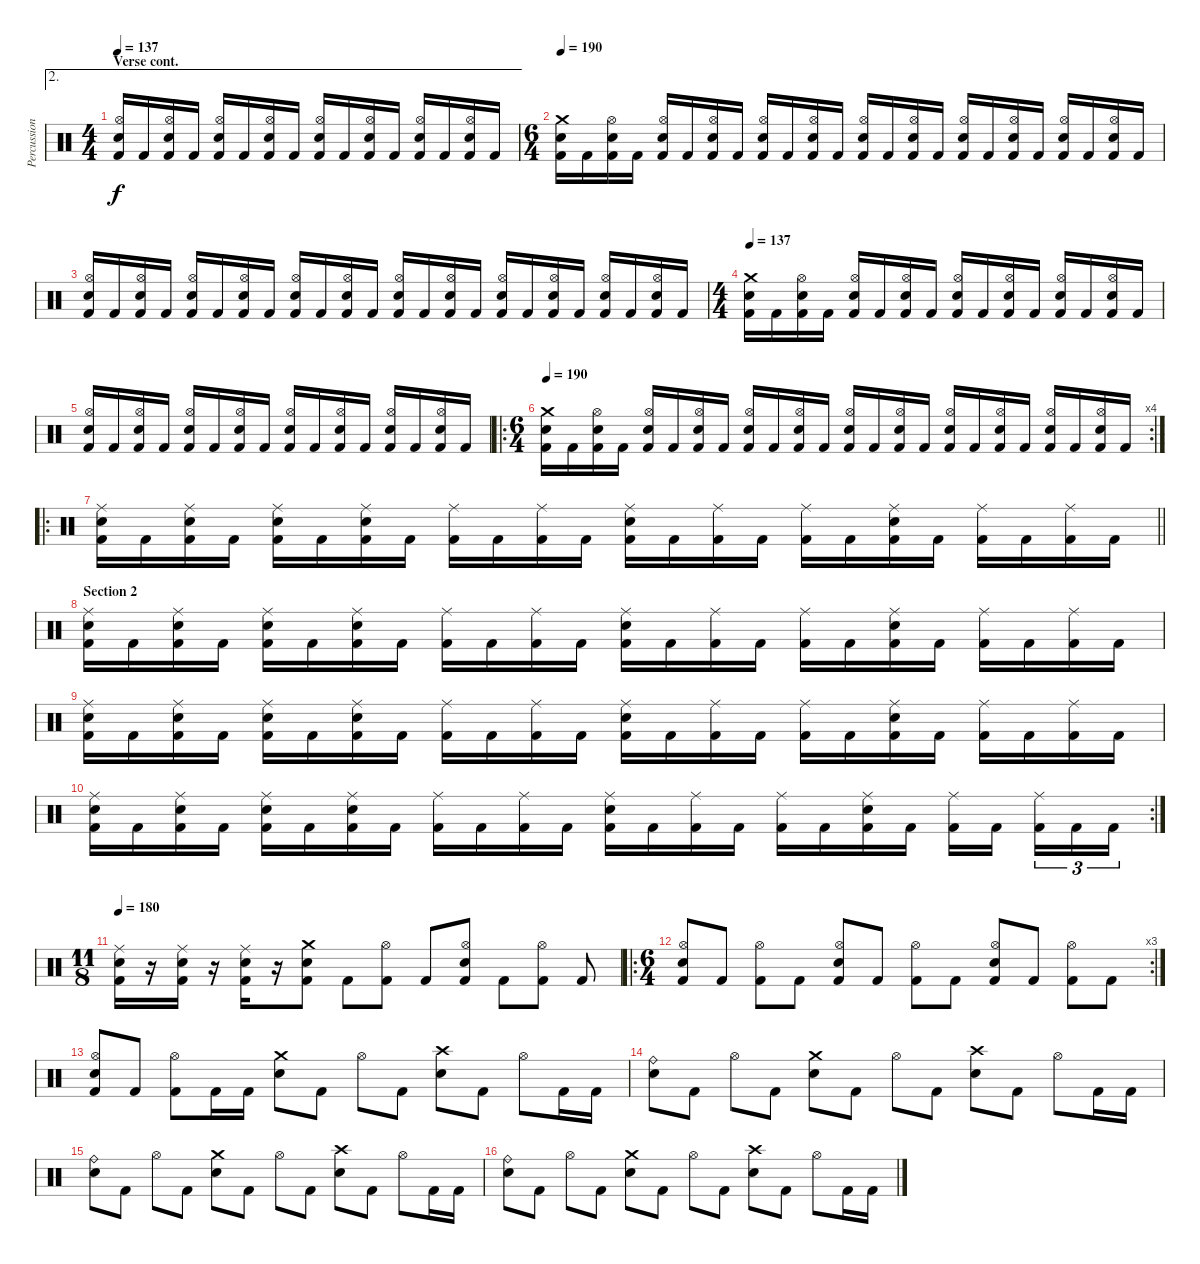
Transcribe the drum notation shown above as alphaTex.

\track ("Percussion" "Percussion") {instrument percussion}
\staff {score}
\articulation defaults
\ae 2
\ts (4 4)
\section ("" "Verse cont.")
\tempo 137
\clef neutral
\ks c
("Kick (hit) 2" "Hi-Hat (open)" "Snare (hit) 2").16{dy f} "Kick (hit) 2".16 ("Kick (hit) 2" "Hi-Hat (open)" "Snare (hit) 2").16 "Kick (hit) 2".16 ("Kick (hit) 2" "Hi-Hat (open)" "Snare (hit) 2").16 "Kick (hit) 2".16 ("Kick (hit) 2" "Hi-Hat (open)" "Snare (hit) 2").16 "Kick (hit) 2".16 ("Kick (hit) 2" "Hi-Hat (open)" "Snare (hit) 2").16 "Kick (hit) 2".16 ("Kick (hit) 2" "Hi-Hat (open)" "Snare (hit) 2").16 "Kick (hit) 2".16 ("Kick (hit) 2" "Hi-Hat (open)" "Snare (hit) 2").16 "Kick (hit) 2".16 ("Kick (hit) 2" "Hi-Hat (open)" "Snare (hit) 2").16 "Kick (hit) 2".16 |
\ts (6 4)
\tempo 190
("Kick (hit) 2" "Crash medium (hit)" "Snare (hit) 2").16 "Kick (hit) 2".16 ("Kick (hit) 2" "Hi-Hat (open)" "Snare (hit) 2").16 "Kick (hit) 2".16 ("Kick (hit) 2" "Hi-Hat (open)" "Snare (hit) 2").16 "Kick (hit) 2".16 ("Kick (hit) 2" "Hi-Hat (open)" "Snare (hit) 2").16 "Kick (hit) 2".16 ("Kick (hit) 2" "Hi-Hat (open)" "Snare (hit) 2").16 "Kick (hit) 2".16 ("Kick (hit) 2" "Hi-Hat (open)" "Snare (hit) 2").16 "Kick (hit) 2".16 ("Kick (hit) 2" "Hi-Hat (open)" "Snare (hit) 2").16 "Kick (hit) 2".16 ("Kick (hit) 2" "Hi-Hat (open)" "Snare (hit) 2").16 "Kick (hit) 2".16 ("Kick (hit) 2" "Hi-Hat (open)" "Snare (hit) 2").16 "Kick (hit) 2".16 ("Kick (hit) 2" "Hi-Hat (open)" "Snare (hit) 2").16 "Kick (hit) 2".16 ("Kick (hit) 2" "Hi-Hat (open)" "Snare (hit) 2").16 "Kick (hit) 2".16 ("Kick (hit) 2" "Hi-Hat (open)" "Snare (hit) 2").16 "Kick (hit) 2".16 |
("Kick (hit) 2" "Hi-Hat (open)" "Snare (hit) 2").16 "Kick (hit) 2".16 ("Kick (hit) 2" "Hi-Hat (open)" "Snare (hit) 2").16 "Kick (hit) 2".16 ("Kick (hit) 2" "Hi-Hat (open)" "Snare (hit) 2").16 "Kick (hit) 2".16 ("Kick (hit) 2" "Hi-Hat (open)" "Snare (hit) 2").16 "Kick (hit) 2".16 ("Kick (hit) 2" "Hi-Hat (open)" "Snare (hit) 2").16 "Kick (hit) 2".16 ("Kick (hit) 2" "Hi-Hat (open)" "Snare (hit) 2").16 "Kick (hit) 2".16 ("Kick (hit) 2" "Hi-Hat (open)" "Snare (hit) 2").16 "Kick (hit) 2".16 ("Kick (hit) 2" "Hi-Hat (open)" "Snare (hit) 2").16 "Kick (hit) 2".16 ("Kick (hit) 2" "Hi-Hat (open)" "Snare (hit) 2").16 "Kick (hit) 2".16 ("Kick (hit) 2" "Hi-Hat (open)" "Snare (hit) 2").16 "Kick (hit) 2".16 ("Kick (hit) 2" "Hi-Hat (open)" "Snare (hit) 2").16 "Kick (hit) 2".16 ("Kick (hit) 2" "Hi-Hat (open)" "Snare (hit) 2").16 "Kick (hit) 2".16 |
\ts (4 4)
\tempo 137
("Kick (hit) 2" "Crash medium (hit)" "Snare (hit) 2").16 "Kick (hit) 2".16 ("Kick (hit) 2" "Hi-Hat (open)" "Snare (hit) 2").16 "Kick (hit) 2".16 ("Kick (hit) 2" "Hi-Hat (open)" "Snare (hit) 2").16 "Kick (hit) 2".16 ("Kick (hit) 2" "Hi-Hat (open)" "Snare (hit) 2").16 "Kick (hit) 2".16 ("Kick (hit) 2" "Hi-Hat (open)" "Snare (hit) 2").16 "Kick (hit) 2".16 ("Kick (hit) 2" "Hi-Hat (open)" "Snare (hit) 2").16 "Kick (hit) 2".16 ("Kick (hit) 2" "Hi-Hat (open)" "Snare (hit) 2").16 "Kick (hit) 2".16 ("Kick (hit) 2" "Hi-Hat (open)" "Snare (hit) 2").16 "Kick (hit) 2".16 |
("Kick (hit) 2" "Hi-Hat (open)" "Snare (hit) 2").16 "Kick (hit) 2".16 ("Kick (hit) 2" "Hi-Hat (open)" "Snare (hit) 2").16 "Kick (hit) 2".16 ("Kick (hit) 2" "Hi-Hat (open)" "Snare (hit) 2").16 "Kick (hit) 2".16 ("Kick (hit) 2" "Hi-Hat (open)" "Snare (hit) 2").16 "Kick (hit) 2".16 ("Kick (hit) 2" "Hi-Hat (open)" "Snare (hit) 2").16 "Kick (hit) 2".16 ("Kick (hit) 2" "Hi-Hat (open)" "Snare (hit) 2").16 "Kick (hit) 2".16 ("Kick (hit) 2" "Hi-Hat (open)" "Snare (hit) 2").16 "Kick (hit) 2".16 ("Kick (hit) 2" "Hi-Hat (open)" "Snare (hit) 2").16 "Kick (hit) 2".16 |
\ro
\rc 4
\ts (6 4)
\tempo 190
("Kick (hit) 2" "Crash medium (hit)" "Snare (hit) 2").16 "Kick (hit) 2".16 ("Kick (hit) 2" "Hi-Hat (open)" "Snare (hit) 2").16 "Kick (hit) 2".16 ("Kick (hit) 2" "Hi-Hat (open)" "Snare (hit) 2").16 "Kick (hit) 2".16 ("Kick (hit) 2" "Hi-Hat (open)" "Snare (hit) 2").16 "Kick (hit) 2".16 ("Kick (hit) 2" "Hi-Hat (open)" "Snare (hit) 2").16 "Kick (hit) 2".16 ("Kick (hit) 2" "Hi-Hat (open)" "Snare (hit) 2").16 "Kick (hit) 2".16 ("Kick (hit) 2" "Hi-Hat (open)" "Snare (hit) 2").16 "Kick (hit) 2".16 ("Kick (hit) 2" "Hi-Hat (open)" "Snare (hit) 2").16 "Kick (hit) 2".16 ("Kick (hit) 2" "Hi-Hat (open)" "Snare (hit) 2").16 "Kick (hit) 2".16 ("Kick (hit) 2" "Hi-Hat (open)" "Snare (hit) 2").16 "Kick (hit) 2".16 ("Kick (hit) 2" "Hi-Hat (open)" "Snare (hit) 2").16 "Kick (hit) 2".16 ("Kick (hit) 2" "Hi-Hat (open)" "Snare (hit) 2").16 "Kick (hit) 2".16 |
\ro
\barLineRight lightlight
("Kick (hit) 2" "Ride (middle)" "Snare (hit) 2").16 "Kick (hit) 2".16 ("Kick (hit) 2" "Ride (middle)" "Snare (hit) 2").16 "Kick (hit) 2".16 ("Kick (hit) 2" "Ride (middle)" "Snare (hit) 2").16 "Kick (hit) 2".16 ("Kick (hit) 2" "Ride (middle)" "Snare (hit) 2").16 "Kick (hit) 2".16 ("Kick (hit) 2" "Ride (middle)").16 "Kick (hit) 2".16 ("Kick (hit) 2" "Ride (middle)").16 "Kick (hit) 2".16 ("Kick (hit) 2" "Ride (middle)" "Snare (hit) 2").16 "Kick (hit) 2".16 ("Kick (hit) 2" "Ride (middle)").16 "Kick (hit) 2".16 ("Kick (hit) 2" "Ride (middle)").16 "Kick (hit) 2".16 ("Kick (hit) 2" "Ride (middle)" "Snare (hit) 2").16 "Kick (hit) 2".16 ("Kick (hit) 2" "Ride (middle)").16 "Kick (hit) 2".16 ("Kick (hit) 2" "Ride (middle)").16 "Kick (hit) 2".16 |
\section ("" "Section 2")
("Kick (hit) 2" "Ride (middle)" "Snare (hit) 2").16 "Kick (hit) 2".16 ("Kick (hit) 2" "Ride (middle)" "Snare (hit) 2").16 "Kick (hit) 2".16 ("Kick (hit) 2" "Ride (middle)" "Snare (hit) 2").16 "Kick (hit) 2".16 ("Kick (hit) 2" "Ride (middle)" "Snare (hit) 2").16 "Kick (hit) 2".16 ("Kick (hit) 2" "Ride (middle)").16 "Kick (hit) 2".16 ("Kick (hit) 2" "Ride (middle)").16 "Kick (hit) 2".16 ("Kick (hit) 2" "Ride (middle)" "Snare (hit) 2").16 "Kick (hit) 2".16 ("Kick (hit) 2" "Ride (middle)").16 "Kick (hit) 2".16 ("Kick (hit) 2" "Ride (middle)").16 "Kick (hit) 2".16 ("Kick (hit) 2" "Ride (middle)" "Snare (hit) 2").16 "Kick (hit) 2".16 ("Kick (hit) 2" "Ride (middle)").16 "Kick (hit) 2".16 ("Kick (hit) 2" "Ride (middle)").16 "Kick (hit) 2".16 |
("Kick (hit) 2" "Ride (middle)" "Snare (hit) 2").16 "Kick (hit) 2".16 ("Kick (hit) 2" "Ride (middle)" "Snare (hit) 2").16 "Kick (hit) 2".16 ("Kick (hit) 2" "Ride (middle)" "Snare (hit) 2").16 "Kick (hit) 2".16 ("Kick (hit) 2" "Ride (middle)" "Snare (hit) 2").16 "Kick (hit) 2".16 ("Kick (hit) 2" "Ride (middle)").16 "Kick (hit) 2".16 ("Kick (hit) 2" "Ride (middle)").16 "Kick (hit) 2".16 ("Kick (hit) 2" "Ride (middle)" "Snare (hit) 2").16 "Kick (hit) 2".16 ("Kick (hit) 2" "Ride (middle)").16 "Kick (hit) 2".16 ("Kick (hit) 2" "Ride (middle)").16 "Kick (hit) 2".16 ("Kick (hit) 2" "Ride (middle)" "Snare (hit) 2").16 "Kick (hit) 2".16 ("Kick (hit) 2" "Ride (middle)").16 "Kick (hit) 2".16 ("Kick (hit) 2" "Ride (middle)").16 "Kick (hit) 2".16 |
\rc 2
("Kick (hit) 2" "Ride (middle)" "Snare (hit) 2").16 "Kick (hit) 2".16 ("Kick (hit) 2" "Ride (middle)" "Snare (hit) 2").16 "Kick (hit) 2".16 ("Kick (hit) 2" "Ride (middle)" "Snare (hit) 2").16 "Kick (hit) 2".16 ("Kick (hit) 2" "Ride (middle)" "Snare (hit) 2").16 "Kick (hit) 2".16 ("Kick (hit) 2" "Ride (middle)").16 "Kick (hit) 2".16 ("Kick (hit) 2" "Ride (middle)").16 "Kick (hit) 2".16 ("Kick (hit) 2" "Ride (middle)" "Snare (hit) 2").16 "Kick (hit) 2".16 ("Kick (hit) 2" "Ride (middle)").16 "Kick (hit) 2".16 ("Kick (hit) 2" "Ride (middle)").16 "Kick (hit) 2".16 ("Kick (hit) 2" "Ride (middle)" "Snare (hit) 2").16 "Kick (hit) 2".16 ("Kick (hit) 2" "Ride (middle)").16 "Kick (hit) 2".16{beam splitsecondary} ("Kick (hit) 2" "Ride (middle)").16{tu (3 2)} "Kick (hit) 2".16{tu (3 2)} "Kick (hit) 2".16{tu (3 2)} |
\ts (11 8)
\tempo 180
("Kick (hit) 2" "Ride (middle)" "Snare (hit) 2").16 r.16 ("Kick (hit) 2" "Ride (middle)" "Snare (hit) 2").16 r.16 ("Kick (hit) 2" "Ride (middle)" "Snare (hit) 2").16 r.16 ("Kick (hit) 2" "Crash medium (hit)" "Snare (hit) 2").8 "Kick (hit) 2".8 ("Kick (hit) 2" "Hi-Hat (open)").8 "Kick (hit) 2".8 ("Kick (hit) 2" "Hi-Hat (open)" "Snare (hit) 2").8 "Kick (hit) 2".8 ("Kick (hit) 2" "Hi-Hat (open)").8 "Kick (hit) 2".8 |
\ro
\rc 3
\ts (6 4)
("Kick (hit) 2" "Hi-Hat (open)" "Snare (hit) 2").8 "Kick (hit) 2".8 ("Kick (hit) 2" "Hi-Hat (open)").8 "Kick (hit) 2".8 ("Kick (hit) 2" "Hi-Hat (open)" "Snare (hit) 2").8 "Kick (hit) 2".8 ("Kick (hit) 2" "Hi-Hat (open)").8 "Kick (hit) 2".8 ("Kick (hit) 2" "Hi-Hat (open)" "Snare (hit) 2").8 "Kick (hit) 2".8 ("Kick (hit) 2" "Hi-Hat (open)").8 "Kick (hit) 2".8 |
("Kick (hit) 2" "Hi-Hat (open)" "Snare (hit) 2").8 "Kick (hit) 2".8 ("Kick (hit) 2" "Hi-Hat (open)").8 "Kick (hit) 2".16 "Kick (hit) 2".16 ("Crash medium (hit)" "Snare (hit) 2").8 "Kick (hit) 2".8 "Hi-Hat (open)".8 "Kick (hit) 2".8 ("Crash high (hit)" "Snare (hit) 2").8 "Kick (hit) 2".8 "Hi-Hat (open)".8 "Kick (hit) 2".16 "Kick (hit) 2".16 |
("Ride (bell)" "Snare (hit) 2").8 "Kick (hit) 2".8 "Hi-Hat (open)".8 "Kick (hit) 2".8 ("Crash medium (hit)" "Snare (hit) 2").8 "Kick (hit) 2".8 "Hi-Hat (open)".8 "Kick (hit) 2".8 ("Crash high (hit)" "Snare (hit) 2").8 "Kick (hit) 2".8 "Hi-Hat (open)".8 "Kick (hit) 2".16 "Kick (hit) 2".16 |
("Ride (bell)" "Snare (hit) 2").8 "Kick (hit) 2".8 "Hi-Hat (open)".8 "Kick (hit) 2".8 ("Crash medium (hit)" "Snare (hit) 2").8 "Kick (hit) 2".8 "Hi-Hat (open)".8 "Kick (hit) 2".8 ("Crash high (hit)" "Snare (hit) 2").8 "Kick (hit) 2".8 "Hi-Hat (open)".8 "Kick (hit) 2".16 "Kick (hit) 2".16 |
("Ride (bell)" "Snare (hit) 2").8 "Kick (hit) 2".8 "Hi-Hat (open)".8 "Kick (hit) 2".8 ("Crash medium (hit)" "Snare (hit) 2").8 "Kick (hit) 2".8 "Hi-Hat (open)".8 "Kick (hit) 2".8 ("Crash high (hit)" "Snare (hit) 2").8 "Kick (hit) 2".8 "Hi-Hat (open)".8 "Kick (hit) 2".16 "Kick (hit) 2".16
